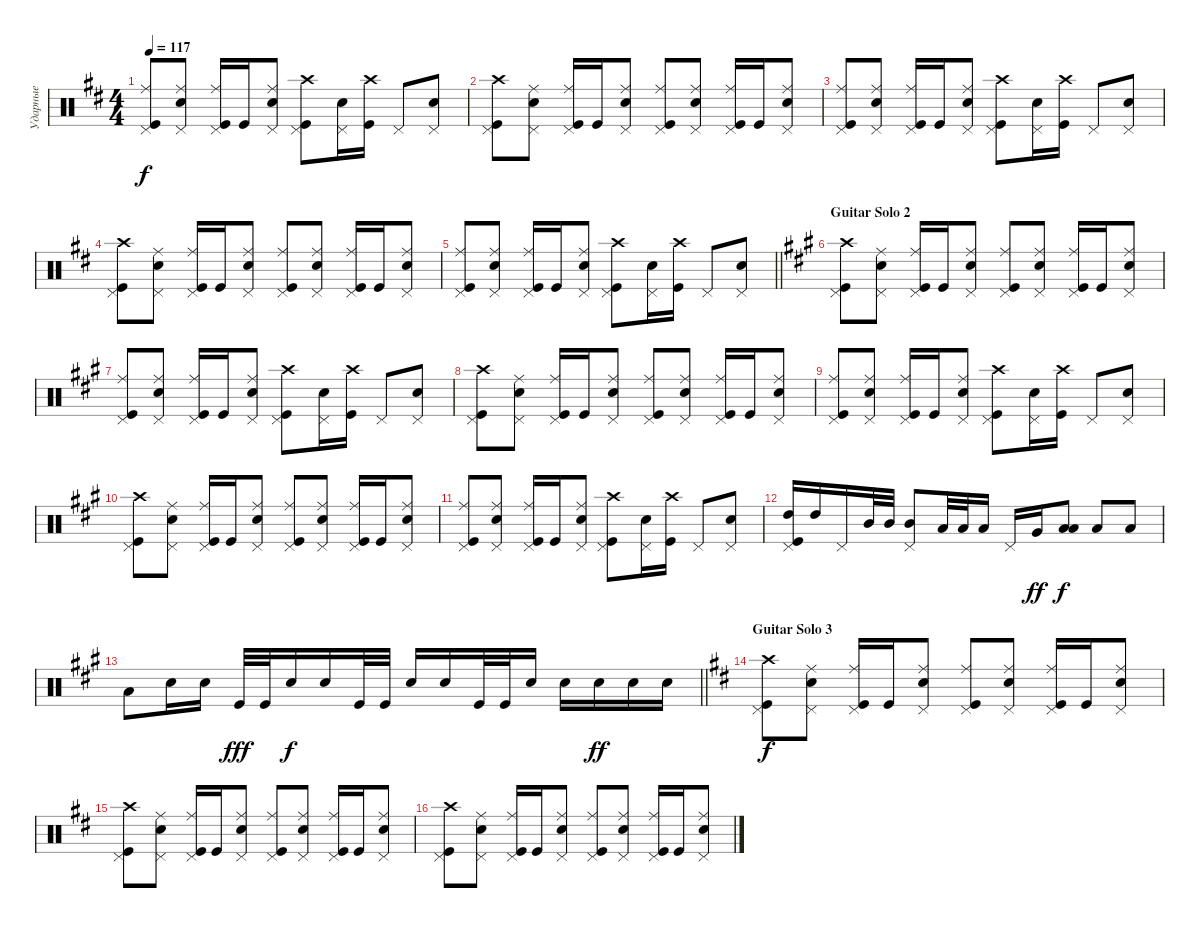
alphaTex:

\track ("Ударные" "Ударные") {instrument percussion}
\staff {score}
\articulation defaults
\ts (4 4)
\tempo 117
\clef neutral
\ks d
("Kick (hit)" "Ride (middle)" "Pedal Hi-Hat (hit)").8{dy f} ("Snare (hit) 2" "Ride (middle)" "Pedal Hi-Hat (hit)").8 ("Kick (hit)" "Ride (middle)" "Pedal Hi-Hat (hit)").16 "Kick (hit)".16 ("Snare (hit) 2" "Ride (middle)" "Pedal Hi-Hat (hit)").8 ("Kick (hit)" "Crash high (hit)" "Pedal Hi-Hat (hit)").8 ("Snare (hit) 2" "Pedal Hi-Hat (hit)").16 ("Kick (hit)" "Crash high (hit)").16 "Pedal Hi-Hat (hit)".8 ("Snare (hit) 2" "Pedal Hi-Hat (hit)").8 |
("Kick (hit)" "Crash high (hit)" "Pedal Hi-Hat (hit)").8 ("Snare (hit) 2" "Pedal Hi-Hat (hit)" "Ride (middle)").8 ("Kick (hit)" "Pedal Hi-Hat (hit)" "Ride (middle)").16 "Kick (hit)".16 ("Snare (hit) 2" "Pedal Hi-Hat (hit)" "Ride (middle)").8 ("Kick (hit)" "Pedal Hi-Hat (hit)" "Ride (middle)").8 ("Snare (hit) 2" "Pedal Hi-Hat (hit)" "Ride (middle)").8 ("Kick (hit)" "Pedal Hi-Hat (hit)" "Ride (middle)").16 "Kick (hit)".16 ("Snare (hit) 2" "Pedal Hi-Hat (hit)" "Ride (middle)").8 |
("Kick (hit)" "Ride (middle)" "Pedal Hi-Hat (hit)").8 ("Snare (hit) 2" "Ride (middle)" "Pedal Hi-Hat (hit)").8 ("Kick (hit)" "Ride (middle)" "Pedal Hi-Hat (hit)").16 "Kick (hit)".16 ("Snare (hit) 2" "Ride (middle)" "Pedal Hi-Hat (hit)").8 ("Kick (hit)" "Crash high (hit)" "Pedal Hi-Hat (hit)").8 ("Snare (hit) 2" "Pedal Hi-Hat (hit)").16 ("Kick (hit)" "Crash high (hit)").16 "Pedal Hi-Hat (hit)".8 ("Snare (hit) 2" "Pedal Hi-Hat (hit)").8 |
("Kick (hit)" "Crash high (hit)" "Pedal Hi-Hat (hit)").8 ("Snare (hit) 2" "Pedal Hi-Hat (hit)" "Ride (middle)").8 ("Kick (hit)" "Pedal Hi-Hat (hit)" "Ride (middle)").16 "Kick (hit)".16 ("Snare (hit) 2" "Pedal Hi-Hat (hit)" "Ride (middle)").8 ("Kick (hit)" "Pedal Hi-Hat (hit)" "Ride (middle)").8 ("Snare (hit) 2" "Pedal Hi-Hat (hit)" "Ride (middle)").8 ("Kick (hit)" "Pedal Hi-Hat (hit)" "Ride (middle)").16 "Kick (hit)".16 ("Snare (hit) 2" "Pedal Hi-Hat (hit)" "Ride (middle)").8 |
\barLineRight lightlight
("Kick (hit)" "Ride (middle)" "Pedal Hi-Hat (hit)").8 ("Snare (hit) 2" "Ride (middle)" "Pedal Hi-Hat (hit)").8 ("Kick (hit)" "Ride (middle)" "Pedal Hi-Hat (hit)").16 "Kick (hit)".16 ("Snare (hit) 2" "Ride (middle)" "Pedal Hi-Hat (hit)").8 ("Kick (hit)" "Crash high (hit)" "Pedal Hi-Hat (hit)").8 ("Snare (hit) 2" "Pedal Hi-Hat (hit)").16 ("Kick (hit)" "Crash high (hit)").16 "Pedal Hi-Hat (hit)".8 ("Snare (hit) 2" "Pedal Hi-Hat (hit)").8 |
\section ("" "Guitar Solo 2")
\ks f#minor
("Kick (hit)" "Crash high (hit)" "Pedal Hi-Hat (hit)").8 ("Snare (hit) 2" "Pedal Hi-Hat (hit)" "Ride (middle)").8 ("Kick (hit)" "Pedal Hi-Hat (hit)" "Ride (middle)").16 "Kick (hit)".16 ("Snare (hit) 2" "Pedal Hi-Hat (hit)" "Ride (middle)").8 ("Kick (hit)" "Pedal Hi-Hat (hit)" "Ride (middle)").8 ("Snare (hit) 2" "Pedal Hi-Hat (hit)" "Ride (middle)").8 ("Kick (hit)" "Pedal Hi-Hat (hit)" "Ride (middle)").16 "Kick (hit)".16 ("Snare (hit) 2" "Pedal Hi-Hat (hit)" "Ride (middle)").8 |
("Kick (hit)" "Ride (middle)" "Pedal Hi-Hat (hit)").8 ("Snare (hit) 2" "Ride (middle)" "Pedal Hi-Hat (hit)").8 ("Kick (hit)" "Ride (middle)" "Pedal Hi-Hat (hit)").16 "Kick (hit)".16 ("Snare (hit) 2" "Ride (middle)" "Pedal Hi-Hat (hit)").8 ("Kick (hit)" "Crash high (hit)" "Pedal Hi-Hat (hit)").8 ("Snare (hit) 2" "Pedal Hi-Hat (hit)").16 ("Kick (hit)" "Crash high (hit)").16 "Pedal Hi-Hat (hit)".8 ("Snare (hit) 2" "Pedal Hi-Hat (hit)").8 |
("Kick (hit)" "Crash high (hit)" "Pedal Hi-Hat (hit)").8 ("Snare (hit) 2" "Pedal Hi-Hat (hit)" "Ride (middle)").8 ("Kick (hit)" "Pedal Hi-Hat (hit)" "Ride (middle)").16 "Kick (hit)".16 ("Snare (hit) 2" "Pedal Hi-Hat (hit)" "Ride (middle)").8 ("Kick (hit)" "Pedal Hi-Hat (hit)" "Ride (middle)").8 ("Snare (hit) 2" "Pedal Hi-Hat (hit)" "Ride (middle)").8 ("Kick (hit)" "Pedal Hi-Hat (hit)" "Ride (middle)").16 "Kick (hit)".16 ("Snare (hit) 2" "Pedal Hi-Hat (hit)" "Ride (middle)").8 |
("Kick (hit)" "Ride (middle)" "Pedal Hi-Hat (hit)").8 ("Snare (hit) 2" "Ride (middle)" "Pedal Hi-Hat (hit)").8 ("Kick (hit)" "Ride (middle)" "Pedal Hi-Hat (hit)").16 "Kick (hit)".16 ("Snare (hit) 2" "Ride (middle)" "Pedal Hi-Hat (hit)").8 ("Kick (hit)" "Crash high (hit)" "Pedal Hi-Hat (hit)").8 ("Snare (hit) 2" "Pedal Hi-Hat (hit)").16 ("Kick (hit)" "Crash high (hit)").16 "Pedal Hi-Hat (hit)".8 ("Snare (hit) 2" "Pedal Hi-Hat (hit)").8 |
("Kick (hit)" "Crash high (hit)" "Pedal Hi-Hat (hit)").8 ("Snare (hit) 2" "Pedal Hi-Hat (hit)" "Ride (middle)").8 ("Kick (hit)" "Pedal Hi-Hat (hit)" "Ride (middle)").16 "Kick (hit)".16 ("Snare (hit) 2" "Pedal Hi-Hat (hit)" "Ride (middle)").8 ("Kick (hit)" "Pedal Hi-Hat (hit)" "Ride (middle)").8 ("Snare (hit) 2" "Pedal Hi-Hat (hit)" "Ride (middle)").8 ("Kick (hit)" "Pedal Hi-Hat (hit)" "Ride (middle)").16 "Kick (hit)".16 ("Snare (hit) 2" "Pedal Hi-Hat (hit)" "Ride (middle)").8 |
("Kick (hit)" "Ride (middle)" "Pedal Hi-Hat (hit)").8 ("Snare (hit) 2" "Ride (middle)" "Pedal Hi-Hat (hit)").8 ("Kick (hit)" "Ride (middle)" "Pedal Hi-Hat (hit)").16 "Kick (hit)".16 ("Snare (hit) 2" "Ride (middle)" "Pedal Hi-Hat (hit)").8 ("Kick (hit)" "Crash high (hit)" "Pedal Hi-Hat (hit)").8 ("Snare (hit) 2" "Pedal Hi-Hat (hit)").16 ("Kick (hit)" "Crash high (hit)").16 "Pedal Hi-Hat (hit)".8 ("Snare (hit) 2" "Pedal Hi-Hat (hit)").8 |
("Kick (hit)" "Pedal Hi-Hat (hit)" "High Tom (hit)").16 "High Tom (hit)".16 "Pedal Hi-Hat (hit)".16 "Mid Tom (hit)".32 "Mid Tom (hit)".32 ("Mid Tom (hit)" "Pedal Hi-Hat (hit)").8 "Low Tom (hit)".32 "Low Tom (hit)".32 "Low Tom (hit)".16 "Pedal Hi-Hat (hit)".16 "Very Low Tom (hit)".16{dy ff} ("Low Floor Tom (hit)" "Low Floor Tom (hit)").8{dy f} "Low Floor Tom (hit)".8 "Low Floor Tom (hit)".8 |
\barLineRight lightlight "Low Floor Tom (hit)".8 "Snare (hit) 2".16 "Snare (hit) 2".16 "Kick (hit)".32{dy fff} "Kick (hit)".32 "Snare (hit) 2".16{dy f} "Snare (hit) 2".16 "Kick (hit)".32 "Kick (hit)".32 "Snare (hit) 2".16 "Snare (hit) 2".16 "Kick (hit)".32 "Kick (hit)".32 "Snare (hit) 2".16 "Snare (hit) 2".16 "Snare (hit) 2".16{dy ff} "Snare (hit) 2".16 "Snare (hit) 2".16
|
\section ("" "Guitar Solo 3")
\ks bminor
("Kick (hit)" "Crash high (hit)" "Pedal Hi-Hat (hit)").8{dy f} ("Snare (hit) 2" "Ride (middle)" "Pedal Hi-Hat (hit)").8 ("Kick (hit)" "Ride (middle)" "Pedal Hi-Hat (hit)").16 "Kick (hit)".16 ("Snare (hit) 2" "Ride (middle)" "Pedal Hi-Hat (hit)").8 ("Kick (hit)" "Ride (middle)" "Pedal Hi-Hat (hit)").8 ("Snare (hit) 2" "Ride (middle)" "Pedal Hi-Hat (hit)").8 ("Kick (hit)" "Ride (middle)" "Pedal Hi-Hat (hit)").16 "Kick (hit)".16 ("Snare (hit) 2" "Ride (middle)" "Pedal Hi-Hat (hit)").8 |
("Kick (hit)" "Crash high (hit)" "Pedal Hi-Hat (hit)").8 ("Snare (hit) 2" "Ride (middle)" "Pedal Hi-Hat (hit)").8 ("Kick (hit)" "Ride (middle)" "Pedal Hi-Hat (hit)").16 "Kick (hit)".16 ("Snare (hit) 2" "Ride (middle)" "Pedal Hi-Hat (hit)").8 ("Kick (hit)" "Ride (middle)" "Pedal Hi-Hat (hit)").8 ("Snare (hit) 2" "Ride (middle)" "Pedal Hi-Hat (hit)").8 ("Kick (hit)" "Ride (middle)" "Pedal Hi-Hat (hit)").16 "Kick (hit)".16 ("Snare (hit) 2" "Ride (middle)" "Pedal Hi-Hat (hit)").8 |
("Kick (hit)" "Crash high (hit)" "Pedal Hi-Hat (hit)").8 ("Snare (hit) 2" "Ride (middle)" "Pedal Hi-Hat (hit)").8 ("Kick (hit)" "Ride (middle)" "Pedal Hi-Hat (hit)").16 "Kick (hit)".16 ("Snare (hit) 2" "Ride (middle)" "Pedal Hi-Hat (hit)").8 ("Kick (hit)" "Ride (middle)" "Pedal Hi-Hat (hit)").8 ("Snare (hit) 2" "Ride (middle)" "Pedal Hi-Hat (hit)").8 ("Kick (hit)" "Ride (middle)" "Pedal Hi-Hat (hit)").16 "Kick (hit)".16 ("Snare (hit) 2" "Ride (middle)" "Pedal Hi-Hat (hit)").8
